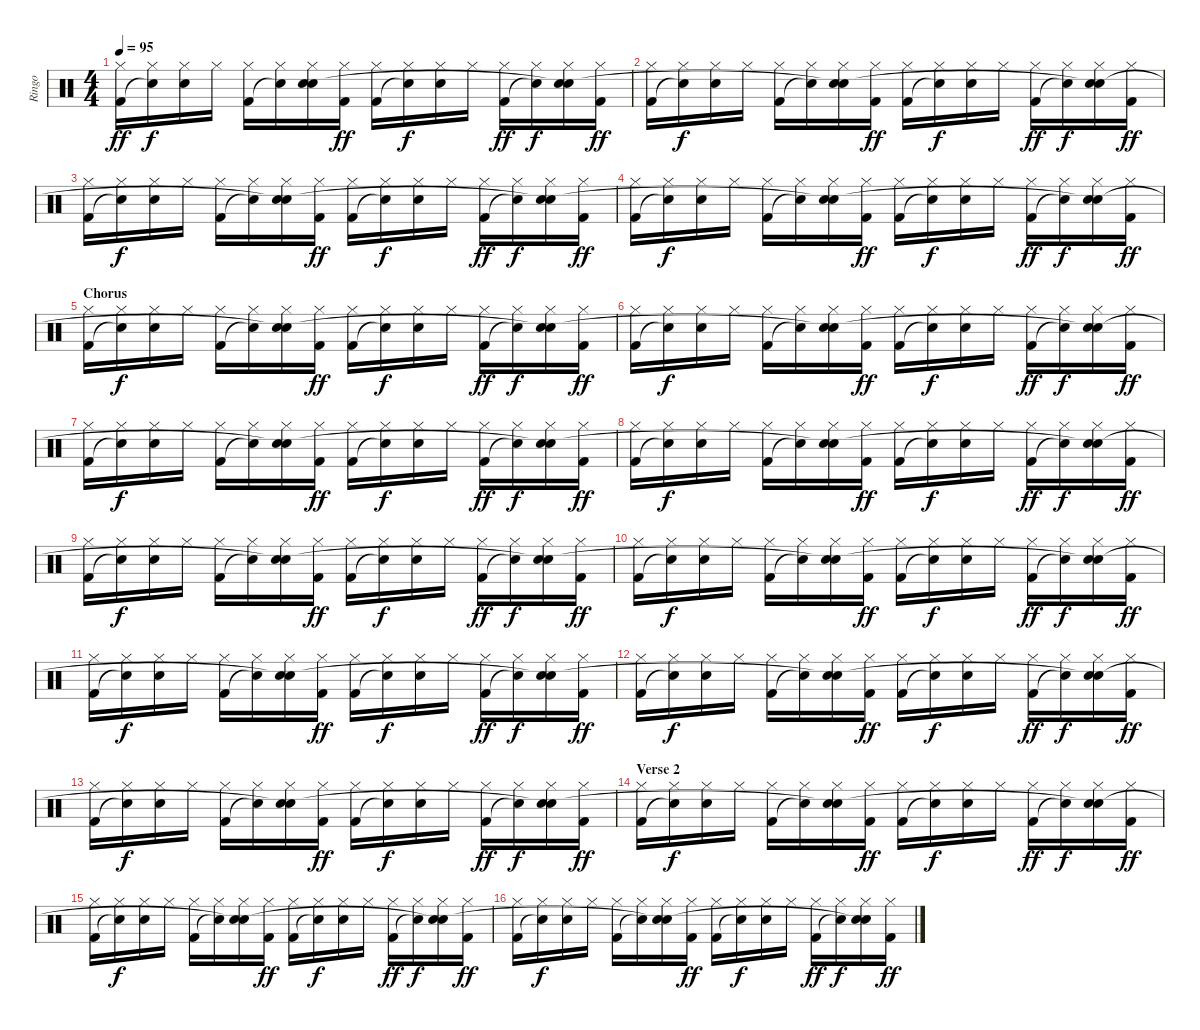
\track ("Ringo" "Ringo") {instrument percussion}
\staff {score}
\articulation defaults
\ts (4 4)
\tempo 95
\clef neutral
\ks c
("Hi-Hat (closed)" "Kick (hit) 2").16{dy ff} ("Hi-Hat (closed)" "Snare (hit)"{t}).16{dy f} ("Hi-Hat (closed)" "Snare (hit) 2").16 "Hi-Hat (closed)".16 ("Hi-Hat (closed)" "Kick (hit) 2").16 ("Hi-Hat (closed)" "Snare (hit)"{t}).16 ("Hi-Hat (closed)" "Snare (hit) 2" "Snare (hit)"{t}).16 ("Hi-Hat (closed)" "Kick (hit) 2").16{dy ff} ("Hi-Hat (closed)" "Kick (hit) 2").16 ("Hi-Hat (closed)" "Snare (hit)"{t}).16{dy f} ("Hi-Hat (closed)" "Snare (hit) 2").16 "Hi-Hat (closed)".16 ("Hi-Hat (closed)" "Kick (hit) 2").16{dy ff} ("Hi-Hat (closed)" "Snare (hit)"{t}).16{dy f} ("Hi-Hat (closed)" "Snare (hit) 2" "Snare (hit)"{t}).16 ("Hi-Hat (closed)" "Kick (hit) 2").16{dy ff} |
("Hi-Hat (closed)" "Kick (hit) 2").16 ("Hi-Hat (closed)" "Snare (hit)"{t}).16{dy f} ("Hi-Hat (closed)" "Snare (hit) 2").16 "Hi-Hat (closed)".16 ("Hi-Hat (closed)" "Kick (hit) 2").16 ("Hi-Hat (closed)" "Snare (hit)"{t}).16 ("Hi-Hat (closed)" "Snare (hit) 2" "Snare (hit)"{t}).16 ("Hi-Hat (closed)" "Kick (hit) 2").16{dy ff} ("Hi-Hat (closed)" "Kick (hit) 2").16 ("Hi-Hat (closed)" "Snare (hit)"{t}).16{dy f} ("Hi-Hat (closed)" "Snare (hit) 2").16 "Hi-Hat (closed)".16 ("Hi-Hat (closed)" "Kick (hit) 2").16{dy ff} ("Hi-Hat (closed)" "Snare (hit)"{t}).16{dy f} ("Hi-Hat (closed)" "Snare (hit) 2" "Snare (hit)"{t}).16 ("Hi-Hat (closed)" "Kick (hit) 2").16{dy ff} |
("Hi-Hat (closed)" "Kick (hit) 2").16 ("Hi-Hat (closed)" "Snare (hit)"{t}).16{dy f} ("Hi-Hat (closed)" "Snare (hit) 2").16 "Hi-Hat (closed)".16 ("Hi-Hat (closed)" "Kick (hit) 2").16 ("Hi-Hat (closed)" "Snare (hit)"{t}).16 ("Hi-Hat (closed)" "Snare (hit) 2" "Snare (hit)"{t}).16 ("Hi-Hat (closed)" "Kick (hit) 2").16{dy ff} ("Hi-Hat (closed)" "Kick (hit) 2").16 ("Hi-Hat (closed)" "Snare (hit)"{t}).16{dy f} ("Hi-Hat (closed)" "Snare (hit) 2").16 "Hi-Hat (closed)".16 ("Hi-Hat (closed)" "Kick (hit) 2").16{dy ff} ("Hi-Hat (closed)" "Snare (hit)"{t}).16{dy f} ("Hi-Hat (closed)" "Snare (hit) 2" "Snare (hit)"{t}).16 ("Hi-Hat (closed)" "Kick (hit) 2").16{dy ff} |
("Hi-Hat (closed)" "Kick (hit) 2").16 ("Hi-Hat (closed)" "Snare (hit)"{t}).16{dy f} ("Hi-Hat (closed)" "Snare (hit) 2").16 "Hi-Hat (closed)".16 ("Hi-Hat (closed)" "Kick (hit) 2").16 ("Hi-Hat (closed)" "Snare (hit)"{t}).16 ("Hi-Hat (closed)" "Snare (hit) 2" "Snare (hit)"{t}).16 ("Hi-Hat (closed)" "Kick (hit) 2").16{dy ff} ("Hi-Hat (closed)" "Kick (hit) 2").16 ("Hi-Hat (closed)" "Snare (hit)"{t}).16{dy f} ("Hi-Hat (closed)" "Snare (hit) 2").16 "Hi-Hat (closed)".16 ("Hi-Hat (closed)" "Kick (hit) 2").16{dy ff} ("Hi-Hat (closed)" "Snare (hit)"{t}).16{dy f} ("Hi-Hat (closed)" "Snare (hit) 2" "Snare (hit)"{t}).16 ("Hi-Hat (closed)" "Kick (hit) 2").16{dy ff} |
\section ("" "Chorus")
("Hi-Hat (closed)" "Kick (hit) 2").16 ("Hi-Hat (closed)" "Snare (hit)"{t}).16{dy f} ("Hi-Hat (closed)" "Snare (hit) 2").16 "Hi-Hat (closed)".16 ("Hi-Hat (closed)" "Kick (hit) 2").16 ("Hi-Hat (closed)" "Snare (hit)"{t}).16 ("Hi-Hat (closed)" "Snare (hit) 2" "Snare (hit)"{t}).16 ("Hi-Hat (closed)" "Kick (hit) 2").16{dy ff} ("Hi-Hat (closed)" "Kick (hit) 2").16 ("Hi-Hat (closed)" "Snare (hit)"{t}).16{dy f} ("Hi-Hat (closed)" "Snare (hit) 2").16 "Hi-Hat (closed)".16 ("Hi-Hat (closed)" "Kick (hit) 2").16{dy ff} ("Hi-Hat (closed)" "Snare (hit)"{t}).16{dy f} ("Hi-Hat (closed)" "Snare (hit) 2" "Snare (hit)"{t}).16 ("Hi-Hat (closed)" "Kick (hit) 2").16{dy ff} |
("Hi-Hat (closed)" "Kick (hit) 2").16 ("Hi-Hat (closed)" "Snare (hit)"{t}).16{dy f} ("Hi-Hat (closed)" "Snare (hit) 2").16 "Hi-Hat (closed)".16 ("Hi-Hat (closed)" "Kick (hit) 2").16 ("Hi-Hat (closed)" "Snare (hit)"{t}).16 ("Hi-Hat (closed)" "Snare (hit) 2" "Snare (hit)"{t}).16 ("Hi-Hat (closed)" "Kick (hit) 2").16{dy ff} ("Hi-Hat (closed)" "Kick (hit) 2").16 ("Hi-Hat (closed)" "Snare (hit)"{t}).16{dy f} ("Hi-Hat (closed)" "Snare (hit) 2").16 "Hi-Hat (closed)".16 ("Hi-Hat (closed)" "Kick (hit) 2").16{dy ff} ("Hi-Hat (closed)" "Snare (hit)"{t}).16{dy f} ("Hi-Hat (closed)" "Snare (hit) 2" "Snare (hit)"{t}).16 ("Hi-Hat (closed)" "Kick (hit) 2").16{dy ff} |
("Hi-Hat (closed)" "Kick (hit) 2").16 ("Hi-Hat (closed)" "Snare (hit)"{t}).16{dy f} ("Hi-Hat (closed)" "Snare (hit) 2").16 "Hi-Hat (closed)".16 ("Hi-Hat (closed)" "Kick (hit) 2").16 ("Hi-Hat (closed)" "Snare (hit)"{t}).16 ("Hi-Hat (closed)" "Snare (hit) 2" "Snare (hit)"{t}).16 ("Hi-Hat (closed)" "Kick (hit) 2").16{dy ff} ("Hi-Hat (closed)" "Kick (hit) 2").16 ("Hi-Hat (closed)" "Snare (hit)"{t}).16{dy f} ("Hi-Hat (closed)" "Snare (hit) 2").16 "Hi-Hat (closed)".16 ("Hi-Hat (closed)" "Kick (hit) 2").16{dy ff} ("Hi-Hat (closed)" "Snare (hit)"{t}).16{dy f} ("Hi-Hat (closed)" "Snare (hit) 2" "Snare (hit)"{t}).16 ("Hi-Hat (closed)" "Kick (hit) 2").16{dy ff} |
("Hi-Hat (closed)" "Kick (hit) 2").16 ("Hi-Hat (closed)" "Snare (hit)"{t}).16{dy f} ("Hi-Hat (closed)" "Snare (hit) 2").16 "Hi-Hat (closed)".16 ("Hi-Hat (closed)" "Kick (hit) 2").16 ("Hi-Hat (closed)" "Snare (hit)"{t}).16 ("Hi-Hat (closed)" "Snare (hit) 2" "Snare (hit)"{t}).16 ("Hi-Hat (closed)" "Kick (hit) 2").16{dy ff} ("Hi-Hat (closed)" "Kick (hit) 2").16 ("Hi-Hat (closed)" "Snare (hit)"{t}).16{dy f} ("Hi-Hat (closed)" "Snare (hit) 2").16 "Hi-Hat (closed)".16 ("Hi-Hat (closed)" "Kick (hit) 2").16{dy ff} ("Hi-Hat (closed)" "Snare (hit)"{t}).16{dy f} ("Hi-Hat (closed)" "Snare (hit) 2" "Snare (hit)"{t}).16 ("Hi-Hat (closed)" "Kick (hit) 2").16{dy ff} |
("Hi-Hat (closed)" "Kick (hit) 2").16 ("Hi-Hat (closed)" "Snare (hit)"{t}).16{dy f} ("Hi-Hat (closed)" "Snare (hit) 2").16 "Hi-Hat (closed)".16 ("Hi-Hat (closed)" "Kick (hit) 2").16 ("Hi-Hat (closed)" "Snare (hit)"{t}).16 ("Hi-Hat (closed)" "Snare (hit) 2" "Snare (hit)"{t}).16 ("Hi-Hat (closed)" "Kick (hit) 2").16{dy ff} ("Hi-Hat (closed)" "Kick (hit) 2").16 ("Hi-Hat (closed)" "Snare (hit)"{t}).16{dy f} ("Hi-Hat (closed)" "Snare (hit) 2").16 "Hi-Hat (closed)".16 ("Hi-Hat (closed)" "Kick (hit) 2").16{dy ff} ("Hi-Hat (closed)" "Snare (hit)"{t}).16{dy f} ("Hi-Hat (closed)" "Snare (hit) 2" "Snare (hit)"{t}).16 ("Hi-Hat (closed)" "Kick (hit) 2").16{dy ff} |
("Hi-Hat (closed)" "Kick (hit) 2").16 ("Hi-Hat (closed)" "Snare (hit)"{t}).16{dy f} ("Hi-Hat (closed)" "Snare (hit) 2").16 "Hi-Hat (closed)".16 ("Hi-Hat (closed)" "Kick (hit) 2").16 ("Hi-Hat (closed)" "Snare (hit)"{t}).16 ("Hi-Hat (closed)" "Snare (hit) 2" "Snare (hit)"{t}).16 ("Hi-Hat (closed)" "Kick (hit) 2").16{dy ff} ("Hi-Hat (closed)" "Kick (hit) 2").16 ("Hi-Hat (closed)" "Snare (hit)"{t}).16{dy f} ("Hi-Hat (closed)" "Snare (hit) 2").16 "Hi-Hat (closed)".16 ("Hi-Hat (closed)" "Kick (hit) 2").16{dy ff} ("Hi-Hat (closed)" "Snare (hit)"{t}).16{dy f} ("Hi-Hat (closed)" "Snare (hit) 2" "Snare (hit)"{t}).16 ("Hi-Hat (closed)" "Kick (hit) 2").16{dy ff} |
("Hi-Hat (closed)" "Kick (hit) 2").16 ("Hi-Hat (closed)" "Snare (hit)"{t}).16{dy f} ("Hi-Hat (closed)" "Snare (hit) 2").16 "Hi-Hat (closed)".16 ("Hi-Hat (closed)" "Kick (hit) 2").16 ("Hi-Hat (closed)" "Snare (hit)"{t}).16 ("Hi-Hat (closed)" "Snare (hit) 2" "Snare (hit)"{t}).16 ("Hi-Hat (closed)" "Kick (hit) 2").16{dy ff} ("Hi-Hat (closed)" "Kick (hit) 2").16 ("Hi-Hat (closed)" "Snare (hit)"{t}).16{dy f} ("Hi-Hat (closed)" "Snare (hit) 2").16 "Hi-Hat (closed)".16 ("Hi-Hat (closed)" "Kick (hit) 2").16{dy ff} ("Hi-Hat (closed)" "Snare (hit)"{t}).16{dy f} ("Hi-Hat (closed)" "Snare (hit) 2" "Snare (hit)"{t}).16 ("Hi-Hat (closed)" "Kick (hit) 2").16{dy ff} |
("Hi-Hat (closed)" "Kick (hit) 2").16 ("Hi-Hat (closed)" "Snare (hit)"{t}).16{dy f} ("Hi-Hat (closed)" "Snare (hit) 2").16 "Hi-Hat (closed)".16 ("Hi-Hat (closed)" "Kick (hit) 2").16 ("Hi-Hat (closed)" "Snare (hit)"{t}).16 ("Hi-Hat (closed)" "Snare (hit) 2" "Snare (hit)"{t}).16 ("Hi-Hat (closed)" "Kick (hit) 2").16{dy ff} ("Hi-Hat (closed)" "Kick (hit) 2").16 ("Hi-Hat (closed)" "Snare (hit)"{t}).16{dy f} ("Hi-Hat (closed)" "Snare (hit) 2").16 "Hi-Hat (closed)".16 ("Hi-Hat (closed)" "Kick (hit) 2").16{dy ff} ("Hi-Hat (closed)" "Snare (hit)"{t}).16{dy f} ("Hi-Hat (closed)" "Snare (hit) 2" "Snare (hit)"{t}).16 ("Hi-Hat (closed)" "Kick (hit) 2").16{dy ff} |
("Hi-Hat (closed)" "Kick (hit) 2").16 ("Hi-Hat (closed)" "Snare (hit)"{t}).16{dy f} ("Hi-Hat (closed)" "Snare (hit) 2").16 "Hi-Hat (closed)".16 ("Hi-Hat (closed)" "Kick (hit) 2").16 ("Hi-Hat (closed)" "Snare (hit)"{t}).16 ("Hi-Hat (closed)" "Snare (hit) 2" "Snare (hit)"{t}).16 ("Hi-Hat (closed)" "Kick (hit) 2").16{dy ff} ("Hi-Hat (closed)" "Kick (hit) 2").16 ("Hi-Hat (closed)" "Snare (hit)"{t}).16{dy f} ("Hi-Hat (closed)" "Snare (hit) 2").16 "Hi-Hat (closed)".16 ("Hi-Hat (closed)" "Kick (hit) 2").16{dy ff} ("Hi-Hat (closed)" "Snare (hit)"{t}).16{dy f} ("Hi-Hat (closed)" "Snare (hit) 2" "Snare (hit)"{t}).16 ("Hi-Hat (closed)" "Kick (hit) 2").16{dy ff} |
\section ("" "Verse 2")
("Hi-Hat (closed)" "Kick (hit) 2").16 ("Hi-Hat (closed)" "Snare (hit)"{t}).16{dy f} ("Hi-Hat (closed)" "Snare (hit) 2").16 "Hi-Hat (closed)".16 ("Hi-Hat (closed)" "Kick (hit) 2").16 ("Hi-Hat (closed)" "Snare (hit)"{t}).16 ("Hi-Hat (closed)" "Snare (hit) 2" "Snare (hit)"{t}).16 ("Hi-Hat (closed)" "Kick (hit) 2").16{dy ff} ("Hi-Hat (closed)" "Kick (hit) 2").16 ("Hi-Hat (closed)" "Snare (hit)"{t}).16{dy f} ("Hi-Hat (closed)" "Snare (hit) 2").16 "Hi-Hat (closed)".16 ("Hi-Hat (closed)" "Kick (hit) 2").16{dy ff} ("Hi-Hat (closed)" "Snare (hit)"{t}).16{dy f} ("Hi-Hat (closed)" "Snare (hit) 2" "Snare (hit)"{t}).16 ("Hi-Hat (closed)" "Kick (hit) 2").16{dy ff} |
("Hi-Hat (closed)" "Kick (hit) 2").16 ("Hi-Hat (closed)" "Snare (hit)"{t}).16{dy f} ("Hi-Hat (closed)" "Snare (hit) 2").16 "Hi-Hat (closed)".16 ("Hi-Hat (closed)" "Kick (hit) 2").16 ("Hi-Hat (closed)" "Snare (hit)"{t}).16 ("Hi-Hat (closed)" "Snare (hit) 2" "Snare (hit)"{t}).16 ("Hi-Hat (closed)" "Kick (hit) 2").16{dy ff} ("Hi-Hat (closed)" "Kick (hit) 2").16 ("Hi-Hat (closed)" "Snare (hit)"{t}).16{dy f} ("Hi-Hat (closed)" "Snare (hit) 2").16 "Hi-Hat (closed)".16 ("Hi-Hat (closed)" "Kick (hit) 2").16{dy ff} ("Hi-Hat (closed)" "Snare (hit)"{t}).16{dy f} ("Hi-Hat (closed)" "Snare (hit) 2" "Snare (hit)"{t}).16 ("Hi-Hat (closed)" "Kick (hit) 2").16{dy ff} |
("Hi-Hat (closed)" "Kick (hit) 2").16 ("Hi-Hat (closed)" "Snare (hit)"{t}).16{dy f} ("Hi-Hat (closed)" "Snare (hit) 2").16 "Hi-Hat (closed)".16 ("Hi-Hat (closed)" "Kick (hit) 2").16 ("Hi-Hat (closed)" "Snare (hit)"{t}).16 ("Hi-Hat (closed)" "Snare (hit) 2" "Snare (hit)"{t}).16 ("Hi-Hat (closed)" "Kick (hit) 2").16{dy ff} ("Hi-Hat (closed)" "Kick (hit) 2").16 ("Hi-Hat (closed)" "Snare (hit)"{t}).16{dy f} ("Hi-Hat (closed)" "Snare (hit) 2").16 "Hi-Hat (closed)".16 ("Hi-Hat (closed)" "Kick (hit) 2").16{dy ff} ("Hi-Hat (closed)" "Snare (hit)"{t}).16{dy f} ("Hi-Hat (closed)" "Snare (hit) 2" "Snare (hit)"{t}).16 ("Hi-Hat (closed)" "Kick (hit) 2").16{dy ff}
